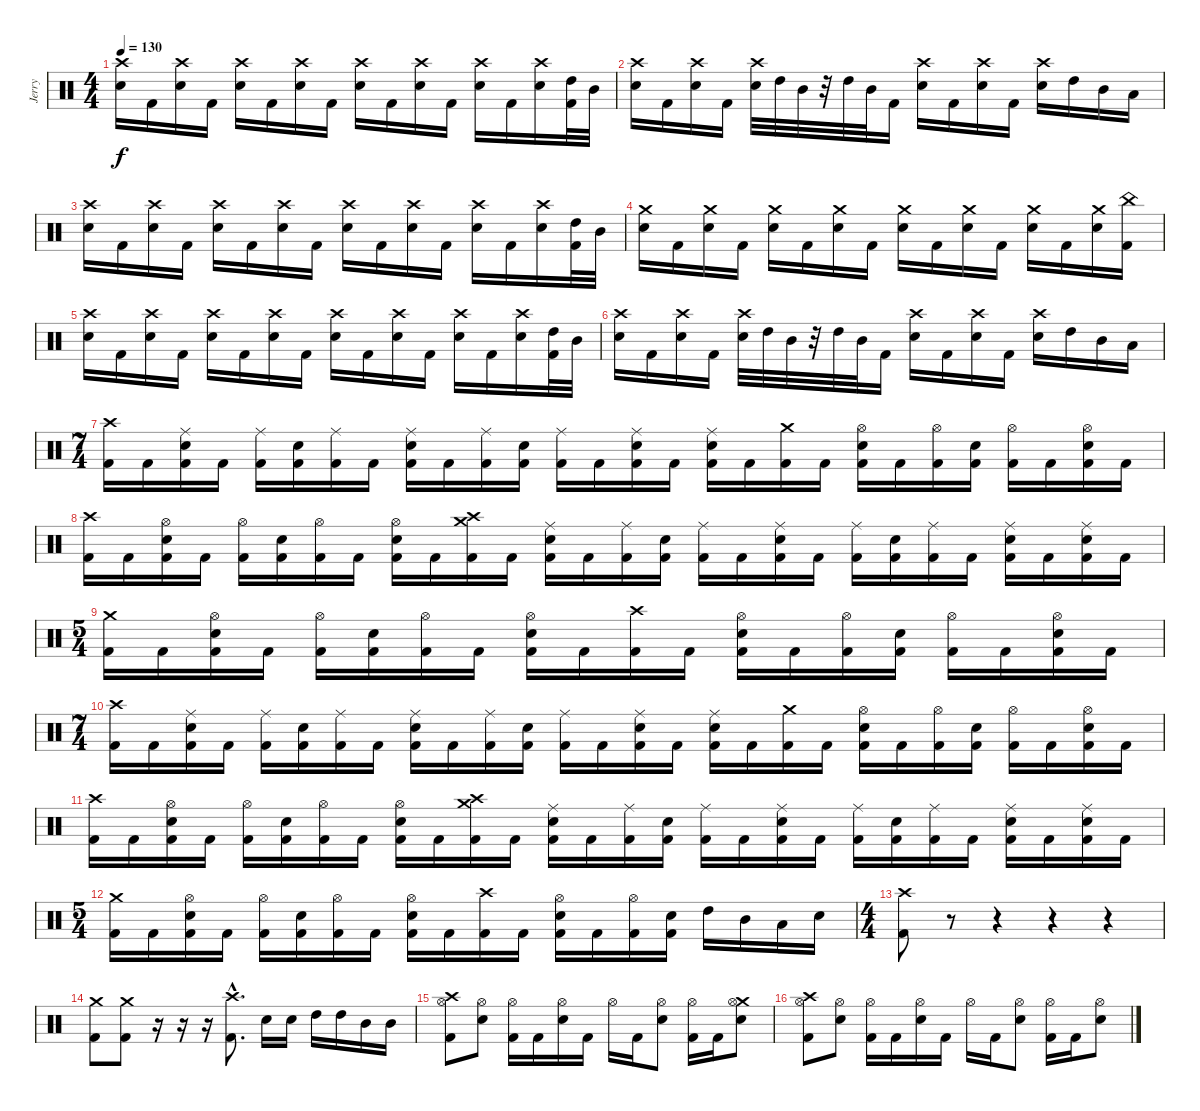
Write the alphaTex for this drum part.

\track ("Jerry" "Jerry") {instrument percussion}
\staff {score}
\articulation defaults
\ts (4 4)
\tempo 130
\clef neutral
\ks c
("Crash high (hit)" "Electric Snare (hit)").16{dy f} "Kick (hit) 2".16 ("Crash high (hit)" "Electric Snare (hit)").16 "Kick (hit) 2".16 ("Crash high (hit)" "Electric Snare (hit)").16 "Kick (hit) 2".16 ("Crash high (hit)" "Electric Snare (hit)").16 "Kick (hit) 2".16 ("Crash high (hit)" "Electric Snare (hit)").16 "Kick (hit) 2".16 ("Crash high (hit)" "Electric Snare (hit)").16 "Kick (hit) 2".16 ("Crash high (hit)" "Electric Snare (hit)").16 "Kick (hit) 2".16 ("Crash high (hit)" "Electric Snare (hit)").16 ("High Tom (hit)" "Kick (hit) 2").32 "Mid Tom (hit)".32 |
("Crash high (hit)" "Electric Snare (hit)").16 "Kick (hit) 2".16 ("Crash high (hit)" "Electric Snare (hit)").16 "Kick (hit) 2".16 ("Crash high (hit)" "Electric Snare (hit)").32 "High Tom (hit)".32 "Mid Tom (hit)".32 r.32 "High Tom (hit)".32 "Mid Tom (hit)".32 "Kick (hit) 2".16 ("Crash high (hit)" "Electric Snare (hit)").16 "Kick (hit) 2".16 ("Crash high (hit)" "Electric Snare (hit)").16 "Kick (hit) 2".16 ("Crash high (hit)" "Electric Snare (hit)").16 "High Tom (hit)".16 "Mid Tom (hit)".16 "Low Tom (hit)".16 |
("Crash high (hit)" "Electric Snare (hit)").16 "Kick (hit) 2".16 ("Crash high (hit)" "Electric Snare (hit)").16 "Kick (hit) 2".16 ("Crash high (hit)" "Electric Snare (hit)").16 "Kick (hit) 2".16 ("Crash high (hit)" "Electric Snare (hit)").16 "Kick (hit) 2".16 ("Crash high (hit)" "Electric Snare (hit)").16 "Kick (hit) 2".16 ("Crash high (hit)" "Electric Snare (hit)").16 "Kick (hit) 2".16 ("Crash high (hit)" "Electric Snare (hit)").16 "Kick (hit) 2".16 ("Crash high (hit)" "Electric Snare (hit)").16 ("High Tom (hit)" "Kick (hit) 2").32 "Mid Tom (hit)".32 |
("Crash medium (hit)" "Electric Snare (hit)").16 "Kick (hit) 2".16 ("Crash medium (hit)" "Electric Snare (hit)").16 "Kick (hit) 2".16 ("Crash medium (hit)" "Electric Snare (hit)").16 "Kick (hit) 2".16 ("Crash medium (hit)" "Electric Snare (hit)").16 "Kick (hit) 2".16 ("Crash medium (hit)" "Electric Snare (hit)").16 "Kick (hit) 2".16 ("Crash medium (hit)" "Electric Snare (hit)").16 "Kick (hit) 2".16 ("Crash medium (hit)" "Electric Snare (hit)").16 "Kick (hit) 2".16 ("Crash medium (hit)" "Electric Snare (hit)").16 ("China (hit)" "Kick (hit) 2").16 |
("Crash high (hit)" "Electric Snare (hit)").16 "Kick (hit) 2".16 ("Crash high (hit)" "Electric Snare (hit)").16 "Kick (hit) 2".16 ("Crash high (hit)" "Electric Snare (hit)").16 "Kick (hit) 2".16 ("Crash high (hit)" "Electric Snare (hit)").16 "Kick (hit) 2".16 ("Crash high (hit)" "Electric Snare (hit)").16 "Kick (hit) 2".16 ("Crash high (hit)" "Electric Snare (hit)").16 "Kick (hit) 2".16 ("Crash high (hit)" "Electric Snare (hit)").16 "Kick (hit) 2".16 ("Crash high (hit)" "Electric Snare (hit)").16 ("High Tom (hit)" "Kick (hit) 2").32 "Mid Tom (hit)".32 |
("Crash high (hit)" "Electric Snare (hit)").16 "Kick (hit) 2".16 ("Crash high (hit)" "Electric Snare (hit)").16 "Kick (hit) 2".16 ("Crash high (hit)" "Electric Snare (hit)").32 "High Tom (hit)".32 "Mid Tom (hit)".32 r.32 "High Tom (hit)".32 "Mid Tom (hit)".32 "Kick (hit) 2".16 ("Crash high (hit)" "Electric Snare (hit)").16 "Kick (hit) 2".16 ("Crash high (hit)" "Electric Snare (hit)").16 "Kick (hit) 2".16 ("Crash high (hit)" "Electric Snare (hit)").16 "High Tom (hit)".16 "Mid Tom (hit)".16 "Low Tom (hit)".16 |
\ts (7 4)
("Crash high (hit)" "Kick (hit) 2").16 "Kick (hit) 2".16 ("Ride (middle)" "Electric Snare (hit)" "Kick (hit) 2").16 "Kick (hit) 2".16 ("Ride (middle)" "Kick (hit) 2").16 ("Electric Snare (hit)" "Kick (hit) 2").16 ("Ride (middle)" "Kick (hit) 2").16 "Kick (hit) 2".16 ("Ride (middle)" "Electric Snare (hit)" "Kick (hit) 2").16 "Kick (hit) 2".16 ("Ride (middle)" "Kick (hit) 2").16 ("Electric Snare (hit)" "Kick (hit) 2").16 ("Ride (middle)" "Kick (hit) 2").16 "Kick (hit) 2".16 ("Ride (middle)" "Electric Snare (hit)" "Kick (hit) 2").16 "Kick (hit) 2".16 ("Ride (middle)" "Electric Snare (hit)" "Kick (hit) 2").16 "Kick (hit) 2".16 ("Crash medium (hit)" "Kick (hit) 2").16 "Kick (hit) 2".16 ("Hi-Hat (open)" "Electric Snare (hit)" "Kick (hit) 2").16 "Kick (hit) 2".16 ("Hi-Hat (open)" "Kick (hit) 2").16 ("Electric Snare (hit)" "Kick (hit) 2").16 ("Hi-Hat (open)" "Kick (hit) 2").16 "Kick (hit) 2".16 ("Hi-Hat (open)" "Electric Snare (hit)" "Kick (hit) 2").16 "Kick (hit) 2".16 |
("Crash high (hit)" "Kick (hit) 2").16 "Kick (hit) 2".16 ("Hi-Hat (open)" "Electric Snare (hit)" "Kick (hit) 2").16 "Kick (hit) 2".16 ("Hi-Hat (open)" "Kick (hit) 2").16 ("Electric Snare (hit)" "Kick (hit) 2").16 ("Hi-Hat (open)" "Kick (hit) 2").16 "Kick (hit) 2".16 ("Hi-Hat (open)" "Electric Snare (hit)" "Kick (hit) 2").16 "Kick (hit) 2".16 ("Crash medium (hit)" "Crash high (hit)" "Kick (hit) 2").16 "Kick (hit) 2".16 ("Ride (middle)" "Electric Snare (hit)" "Kick (hit) 2").16 "Kick (hit) 2".16 ("Ride (middle)" "Kick (hit) 2").16 ("Electric Snare (hit)" "Kick (hit) 2").16 ("Ride (middle)" "Kick (hit) 2").16 "Kick (hit) 2".16 ("Ride (middle)" "Electric Snare (hit)" "Kick (hit) 2").16 "Kick (hit) 2".16 ("Ride (middle)" "Kick (hit) 2").16 ("Electric Snare (hit)" "Kick (hit) 2").16 ("Ride (middle)" "Kick (hit) 2").16 "Kick (hit) 2".16 ("Ride (middle)" "Electric Snare (hit)" "Kick (hit) 2").16 "Kick (hit) 2".16 ("Ride (middle)" "Electric Snare (hit)" "Kick (hit) 2").16 "Kick (hit) 2".16 |
\ts (5 4)
("Crash medium (hit)" "Kick (hit) 2").16 "Kick (hit) 2".16 ("Hi-Hat (open)" "Electric Snare (hit)" "Kick (hit) 2").16 "Kick (hit) 2".16 ("Hi-Hat (open)" "Kick (hit) 2").16 ("Electric Snare (hit)" "Kick (hit) 2").16 ("Hi-Hat (open)" "Kick (hit) 2").16 "Kick (hit) 2".16 ("Hi-Hat (open)" "Electric Snare (hit)" "Kick (hit) 2").16 "Kick (hit) 2".16 ("Crash high (hit)" "Kick (hit) 2").16 "Kick (hit) 2".16 ("Hi-Hat (open)" "Electric Snare (hit)" "Kick (hit) 2").16 "Kick (hit) 2".16 ("Hi-Hat (open)" "Kick (hit) 2").16 ("Electric Snare (hit)" "Kick (hit) 2").16 ("Hi-Hat (open)" "Kick (hit) 2").16 "Kick (hit) 2".16 ("Hi-Hat (open)" "Electric Snare (hit)" "Kick (hit) 2").16 "Kick (hit) 2".16 |
\ts (7 4)
("Crash high (hit)" "Kick (hit) 2").16 "Kick (hit) 2".16 ("Ride (middle)" "Electric Snare (hit)" "Kick (hit) 2").16 "Kick (hit) 2".16 ("Ride (middle)" "Kick (hit) 2").16 ("Electric Snare (hit)" "Kick (hit) 2").16 ("Ride (middle)" "Kick (hit) 2").16 "Kick (hit) 2".16 ("Ride (middle)" "Electric Snare (hit)" "Kick (hit) 2").16 "Kick (hit) 2".16 ("Ride (middle)" "Kick (hit) 2").16 ("Electric Snare (hit)" "Kick (hit) 2").16 ("Ride (middle)" "Kick (hit) 2").16 "Kick (hit) 2".16 ("Ride (middle)" "Electric Snare (hit)" "Kick (hit) 2").16 "Kick (hit) 2".16 ("Ride (middle)" "Electric Snare (hit)" "Kick (hit) 2").16 "Kick (hit) 2".16 ("Crash medium (hit)" "Kick (hit) 2").16 "Kick (hit) 2".16 ("Hi-Hat (open)" "Electric Snare (hit)" "Kick (hit) 2").16 "Kick (hit) 2".16 ("Hi-Hat (open)" "Kick (hit) 2").16 ("Electric Snare (hit)" "Kick (hit) 2").16 ("Hi-Hat (open)" "Kick (hit) 2").16 "Kick (hit) 2".16 ("Hi-Hat (open)" "Electric Snare (hit)" "Kick (hit) 2").16 "Kick (hit) 2".16 |
("Crash high (hit)" "Kick (hit) 2").16 "Kick (hit) 2".16 ("Hi-Hat (open)" "Electric Snare (hit)" "Kick (hit) 2").16 "Kick (hit) 2".16 ("Hi-Hat (open)" "Kick (hit) 2").16 ("Electric Snare (hit)" "Kick (hit) 2").16 ("Hi-Hat (open)" "Kick (hit) 2").16 "Kick (hit) 2".16 ("Hi-Hat (open)" "Electric Snare (hit)" "Kick (hit) 2").16 "Kick (hit) 2".16 ("Crash medium (hit)" "Crash high (hit)" "Kick (hit) 2").16 "Kick (hit) 2".16 ("Ride (middle)" "Electric Snare (hit)" "Kick (hit) 2").16 "Kick (hit) 2".16 ("Ride (middle)" "Kick (hit) 2").16 ("Electric Snare (hit)" "Kick (hit) 2").16 ("Ride (middle)" "Kick (hit) 2").16 "Kick (hit) 2".16 ("Ride (middle)" "Electric Snare (hit)" "Kick (hit) 2").16 "Kick (hit) 2".16 ("Ride (middle)" "Kick (hit) 2").16 ("Electric Snare (hit)" "Kick (hit) 2").16 ("Ride (middle)" "Kick (hit) 2").16 "Kick (hit) 2".16 ("Ride (middle)" "Electric Snare (hit)" "Kick (hit) 2").16 "Kick (hit) 2".16 ("Ride (middle)" "Electric Snare (hit)" "Kick (hit) 2").16 "Kick (hit) 2".16 |
\ts (5 4)
("Crash medium (hit)" "Kick (hit) 2").16 "Kick (hit) 2".16 ("Hi-Hat (open)" "Electric Snare (hit)" "Kick (hit) 2").16 "Kick (hit) 2".16 ("Hi-Hat (open)" "Kick (hit) 2").16 ("Electric Snare (hit)" "Kick (hit) 2").16 ("Hi-Hat (open)" "Kick (hit) 2").16 "Kick (hit) 2".16 ("Hi-Hat (open)" "Electric Snare (hit)" "Kick (hit) 2").16 "Kick (hit) 2".16 ("Crash high (hit)" "Kick (hit) 2").16 "Kick (hit) 2".16 ("Hi-Hat (open)" "Electric Snare (hit)" "Kick (hit) 2").16 "Kick (hit) 2".16 ("Hi-Hat (open)" "Kick (hit) 2").16 ("Electric Snare (hit)" "Kick (hit) 2").16 "High Tom (hit)".16 "Mid Tom (hit)".16 "Low Tom (hit)".16 "Electric Snare (hit)".16 |
\ts (4 4)
("Crash high (hit)" "Kick (hit) 2").8 r.8 r.4 r.4 r.4 |
("Crash medium (hit)" "Kick (hit) 2").8 ("Crash medium (hit)" "Kick (hit) 2").8 r.16 r.16 r.16 ("Crash high (hit)"{hac} "Kick (hit) 2"{hac}).8{d} "Electric Snare (hit)".16 "Electric Snare (hit)".16 "High Tom (hit)".16 "High Tom (hit)".16 "Mid Tom (hit)".16 "Mid Tom (hit)".16 |
("Crash high (hit)" "Hi-Hat (open)" "Kick (hit) 2").8 ("Hi-Hat (open)" "Electric Snare (hit)").8 ("Hi-Hat (open)" "Kick (hit) 2").16 "Kick (hit) 2".16 ("Hi-Hat (open)" "Electric Snare (hit)").16 "Kick (hit) 2".16 "Hi-Hat (open)".16 "Kick (hit) 2".16 ("Hi-Hat (open)" "Electric Snare (hit)").8 ("Hi-Hat (open)" "Kick (hit) 2").16 "Kick (hit) 2".16 ("Crash medium (hit)" "Hi-Hat (open)" "Electric Snare (hit)").8 |
("Crash high (hit)" "Hi-Hat (open)" "Kick (hit) 2").8 ("Hi-Hat (open)" "Electric Snare (hit)").8 ("Hi-Hat (open)" "Kick (hit) 2").16 "Kick (hit) 2".16 ("Hi-Hat (open)" "Electric Snare (hit)").16 "Kick (hit) 2".16 "Hi-Hat (open)".16 "Kick (hit) 2".16 ("Hi-Hat (open)" "Electric Snare (hit)").8 ("Hi-Hat (open)" "Kick (hit) 2").16 "Kick (hit) 2".16 ("Hi-Hat (open)" "Electric Snare (hit)").8
